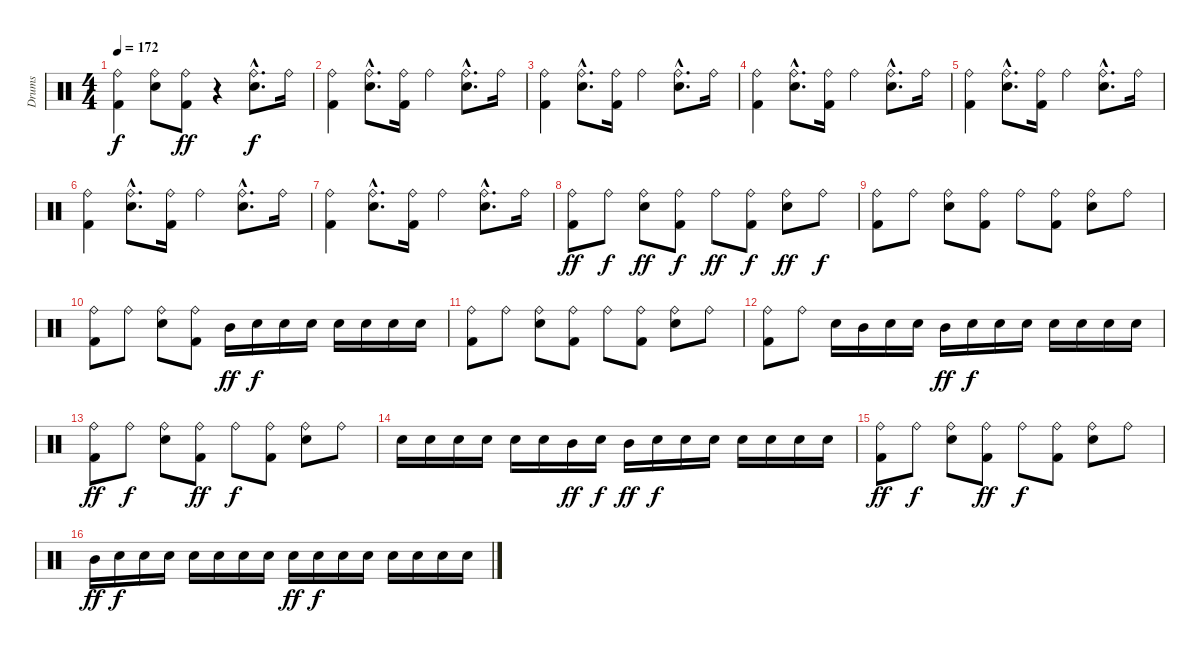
\track ("Drums" "Drums") {instrument percussion}
\staff {score}
\articulation defaults
\ts (4 4)
\tempo 172
\clef neutral
\ks c
("Ride (bell)" "Kick (hit) 2").4{dy f} ("Ride (bell)" "Electric Snare (hit)").8 ("Ride (bell)" "Kick (hit) 2").8{dy ff} r.4 ("Ride (bell)"{hac} "Electric Snare (hit)"{hac}).8{d dy f} "Ride (bell)".16 |
("Ride (bell)" "Kick (hit) 2").4 ("Ride (bell)"{hac} "Electric Snare (hit)"{hac}).8{d} ("Ride (bell)" "Kick (hit) 2").16 "Ride (bell)".4 ("Ride (bell)"{hac} "Electric Snare (hit)"{hac}).8{d} "Ride (bell)".16 |
("Ride (bell)" "Kick (hit) 2").4 ("Ride (bell)"{hac} "Electric Snare (hit)"{hac}).8{d} ("Ride (bell)" "Kick (hit) 2").16 "Ride (bell)".4 ("Ride (bell)"{hac} "Electric Snare (hit)"{hac}).8{d} "Ride (bell)".16 |
("Ride (bell)" "Kick (hit) 2").4 ("Ride (bell)"{hac} "Electric Snare (hit)"{hac}).8{d} ("Ride (bell)" "Kick (hit) 2").16 "Ride (bell)".4 ("Ride (bell)"{hac} "Electric Snare (hit)"{hac}).8{d} "Ride (bell)".16 |
("Ride (bell)" "Kick (hit) 2").4 ("Ride (bell)"{hac} "Electric Snare (hit)"{hac}).8{d} ("Ride (bell)" "Kick (hit) 2").16 "Ride (bell)".4 ("Ride (bell)"{hac} "Electric Snare (hit)"{hac}).8{d} "Ride (bell)".16 |
("Ride (bell)" "Kick (hit) 2").4 ("Ride (bell)"{hac} "Electric Snare (hit)"{hac}).8{d} ("Ride (bell)" "Kick (hit) 2").16 "Ride (bell)".4 ("Ride (bell)"{hac} "Electric Snare (hit)"{hac}).8{d} "Ride (bell)".16 |
("Ride (bell)" "Kick (hit) 2").4 ("Ride (bell)"{hac} "Electric Snare (hit)"{hac}).8{d} ("Ride (bell)" "Kick (hit) 2").16 "Ride (bell)".4 ("Ride (bell)"{hac} "Electric Snare (hit)"{hac}).8{d} "Ride (bell)".16 |
("Ride (bell)" "Kick (hit) 2").8{dy ff} "Ride (bell)".8{dy f} ("Ride (bell)" "Electric Snare (hit)").8{dy ff} ("Ride (bell)" "Kick (hit) 2").8{dy f} "Ride (bell)".8{dy ff} ("Ride (bell)" "Kick (hit) 2").8{dy f} ("Ride (bell)" "Electric Snare (hit)").8{dy ff} "Ride (bell)".8{dy f} |
("Ride (bell)" "Kick (hit) 2").8 "Ride (bell)".8 ("Ride (bell)" "Electric Snare (hit)").8 ("Ride (bell)" "Kick (hit) 2").8 "Ride (bell)".8 ("Ride (bell)" "Kick (hit) 2").8 ("Ride (bell)" "Electric Snare (hit)").8 "Ride (bell)".8 |
("Ride (bell)" "Kick (hit) 2").8 "Ride (bell)".8 ("Ride (bell)" "Electric Snare (hit)").8 ("Ride (bell)" "Kick (hit) 2").8 "Mid Tom (hit)".16{dy ff} "Electric Snare (hit)".16{dy f} "Electric Snare (hit)".16 "Electric Snare (hit)".16 "Electric Snare (hit)".16 "Electric Snare (hit)".16 "Electric Snare (hit)".16 "Electric Snare (hit)".16 |
("Ride (bell)" "Kick (hit) 2").8 "Ride (bell)".8 ("Ride (bell)" "Electric Snare (hit)").8 ("Ride (bell)" "Kick (hit) 2").8 "Ride (bell)".8 ("Ride (bell)" "Kick (hit) 2").8 ("Ride (bell)" "Electric Snare (hit)").8 "Ride (bell)".8 |
("Ride (bell)" "Kick (hit) 2").8 "Ride (bell)".8 "Electric Snare (hit)".16 "Mid Tom (hit)".16 "Electric Snare (hit)".16 "Electric Snare (hit)".16 "Mid Tom (hit)".16{dy ff} "Electric Snare (hit)".16{dy f} "Electric Snare (hit)".16 "Electric Snare (hit)".16 "Electric Snare (hit)".16 "Electric Snare (hit)".16 "Electric Snare (hit)".16 "Electric Snare (hit)".16 |
("Ride (bell)" "Kick (hit) 2").8{dy ff} "Ride (bell)".8{dy f} ("Ride (bell)" "Electric Snare (hit)").8 ("Ride (bell)" "Kick (hit) 2").8{dy ff} "Ride (bell)".8{dy f} ("Ride (bell)" "Kick (hit) 2").8 ("Ride (bell)" "Electric Snare (hit)").8 "Ride (bell)".8 |
"Electric Snare (hit)".16 "Electric Snare (hit)".16 "Electric Snare (hit)".16 "Electric Snare (hit)".16 "Electric Snare (hit)".16 "Electric Snare (hit)".16 "Mid Tom (hit)".16{dy ff} "Electric Snare (hit)".16{dy f} "Mid Tom (hit)".16{dy ff} "Electric Snare (hit)".16{dy f} "Electric Snare (hit)".16 "Electric Snare (hit)".16 "Electric Snare (hit)".16 "Electric Snare (hit)".16 "Electric Snare (hit)".16 "Electric Snare (hit)".16 |
("Ride (bell)" "Kick (hit) 2").8{dy ff} "Ride (bell)".8{dy f} ("Ride (bell)" "Electric Snare (hit)").8 ("Ride (bell)" "Kick (hit) 2").8{dy ff} "Ride (bell)".8{dy f} ("Ride (bell)" "Kick (hit) 2").8 ("Ride (bell)" "Electric Snare (hit)").8 "Ride (bell)".8 |
"Mid Tom (hit)".16{dy ff} "Electric Snare (hit)".16{dy f} "Electric Snare (hit)".16 "Electric Snare (hit)".16 "Electric Snare (hit)".16 "Electric Snare (hit)".16 "Electric Snare (hit)".16 "Electric Snare (hit)".16 "Electric Snare (hit)".16{dy ff} "Electric Snare (hit)".16{dy f} "Electric Snare (hit)".16 "Electric Snare (hit)".16 "Electric Snare (hit)".16 "Electric Snare (hit)".16 "Electric Snare (hit)".16 "Electric Snare (hit)".16
